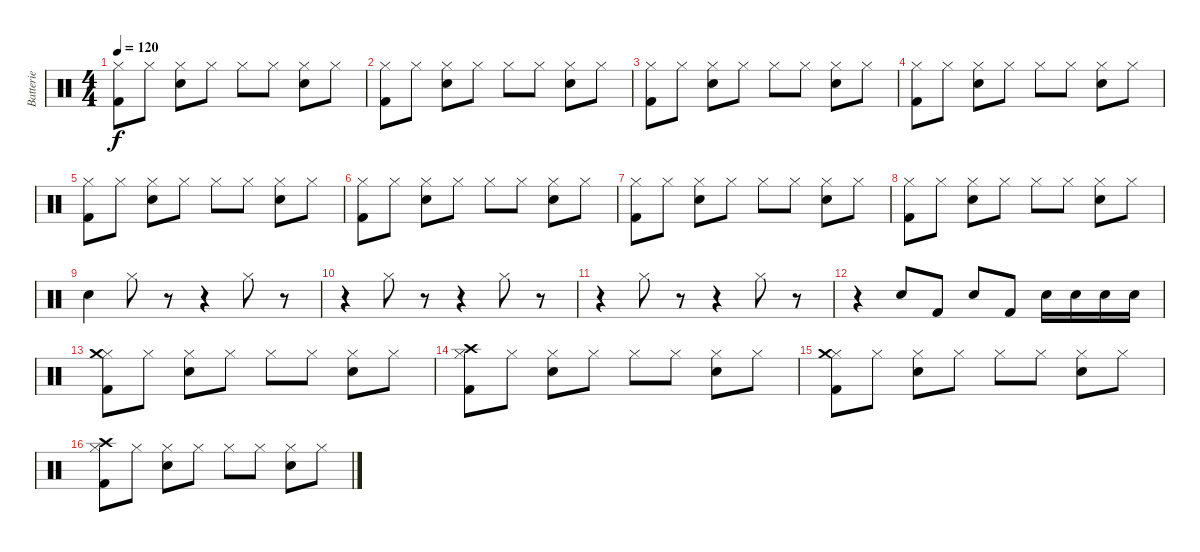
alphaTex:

\track ("Batterie" "Batterie") {instrument percussion}
\staff {score}
\articulation defaults
\ts (4 4)
\tempo 120
\clef neutral
\ks c
("Hi-Hat (closed)" "Kick (hit) 2").8{dy f} "Hi-Hat (closed)".8 ("Hi-Hat (closed)" "Electric Snare (hit)").8 "Hi-Hat (closed)".8 "Hi-Hat (closed)".8 "Hi-Hat (closed)".8 ("Hi-Hat (closed)" "Electric Snare (hit)").8 "Hi-Hat (closed)".8 |
("Hi-Hat (closed)" "Kick (hit) 2").8 "Hi-Hat (closed)".8 ("Hi-Hat (closed)" "Electric Snare (hit)").8 "Hi-Hat (closed)".8 "Hi-Hat (closed)".8 "Hi-Hat (closed)".8 ("Hi-Hat (closed)" "Electric Snare (hit)").8 "Hi-Hat (closed)".8 |
("Hi-Hat (closed)" "Kick (hit) 2").8 "Hi-Hat (closed)".8 ("Hi-Hat (closed)" "Electric Snare (hit)").8 "Hi-Hat (closed)".8 "Hi-Hat (closed)".8 "Hi-Hat (closed)".8 ("Hi-Hat (closed)" "Electric Snare (hit)").8 "Hi-Hat (closed)".8 |
("Hi-Hat (closed)" "Kick (hit) 2").8 "Hi-Hat (closed)".8 ("Hi-Hat (closed)" "Electric Snare (hit)").8 "Hi-Hat (closed)".8 "Hi-Hat (closed)".8 "Hi-Hat (closed)".8 ("Hi-Hat (closed)" "Electric Snare (hit)").8 "Hi-Hat (closed)".8 |
("Hi-Hat (closed)" "Kick (hit) 2").8 "Hi-Hat (closed)".8 ("Hi-Hat (closed)" "Electric Snare (hit)").8 "Hi-Hat (closed)".8 "Hi-Hat (closed)".8 "Hi-Hat (closed)".8 ("Hi-Hat (closed)" "Electric Snare (hit)").8 "Hi-Hat (closed)".8 |
("Hi-Hat (closed)" "Kick (hit) 2").8 "Hi-Hat (closed)".8 ("Hi-Hat (closed)" "Electric Snare (hit)").8 "Hi-Hat (closed)".8 "Hi-Hat (closed)".8 "Hi-Hat (closed)".8 ("Hi-Hat (closed)" "Electric Snare (hit)").8 "Hi-Hat (closed)".8 |
("Hi-Hat (closed)" "Kick (hit) 2").8 "Hi-Hat (closed)".8 ("Hi-Hat (closed)" "Electric Snare (hit)").8 "Hi-Hat (closed)".8 "Hi-Hat (closed)".8 "Hi-Hat (closed)".8 ("Hi-Hat (closed)" "Electric Snare (hit)").8 "Hi-Hat (closed)".8 |
("Hi-Hat (closed)" "Kick (hit) 2").8 "Hi-Hat (closed)".8 ("Hi-Hat (closed)" "Electric Snare (hit)").8 "Hi-Hat (closed)".8 "Hi-Hat (closed)".8 "Hi-Hat (closed)".8 ("Hi-Hat (closed)" "Electric Snare (hit)").8 "Hi-Hat (closed)".8 |
"Electric Snare (hit)".4 "Hi-Hat (closed)".8 r.8 r.4 "Hi-Hat (closed)".8 r.8 |
r.4 "Hi-Hat (closed)".8 r.8 r.4 "Hi-Hat (closed)".8 r.8 |
r.4 "Hi-Hat (closed)".8 r.8 r.4 "Hi-Hat (closed)".8 r.8 |
r.4 "Electric Snare (hit)".8 "Kick (hit) 2".8 "Electric Snare (hit)".8 "Kick (hit) 2".8 "Electric Snare (hit)".16 "Electric Snare (hit)".16 "Electric Snare (hit)".16 "Electric Snare (hit)".16 |
("Hi-Hat (closed)" "Crash medium (hit)" "Kick (hit) 2").8 "Hi-Hat (closed)".8 ("Hi-Hat (closed)" "Electric Snare (hit)").8 "Hi-Hat (closed)".8 "Hi-Hat (closed)".8 "Hi-Hat (closed)".8 ("Hi-Hat (closed)" "Electric Snare (hit)").8 "Hi-Hat (closed)".8 |
("Hi-Hat (closed)" "Crash high (hit)" "Kick (hit) 2").8 "Hi-Hat (closed)".8 ("Hi-Hat (closed)" "Electric Snare (hit)").8 "Hi-Hat (closed)".8 "Hi-Hat (closed)".8 "Hi-Hat (closed)".8 ("Hi-Hat (closed)" "Electric Snare (hit)").8 "Hi-Hat (closed)".8 |
("Hi-Hat (closed)" "Crash medium (hit)" "Kick (hit) 2").8 "Hi-Hat (closed)".8 ("Hi-Hat (closed)" "Electric Snare (hit)").8 "Hi-Hat (closed)".8 "Hi-Hat (closed)".8 "Hi-Hat (closed)".8 ("Hi-Hat (closed)" "Electric Snare (hit)").8 "Hi-Hat (closed)".8 |
("Hi-Hat (closed)" "Crash high (hit)" "Kick (hit) 2").8 "Hi-Hat (closed)".8 ("Hi-Hat (closed)" "Electric Snare (hit)").8 "Hi-Hat (closed)".8 "Hi-Hat (closed)".8 "Hi-Hat (closed)".8 ("Hi-Hat (closed)" "Electric Snare (hit)").8 "Hi-Hat (closed)".8
